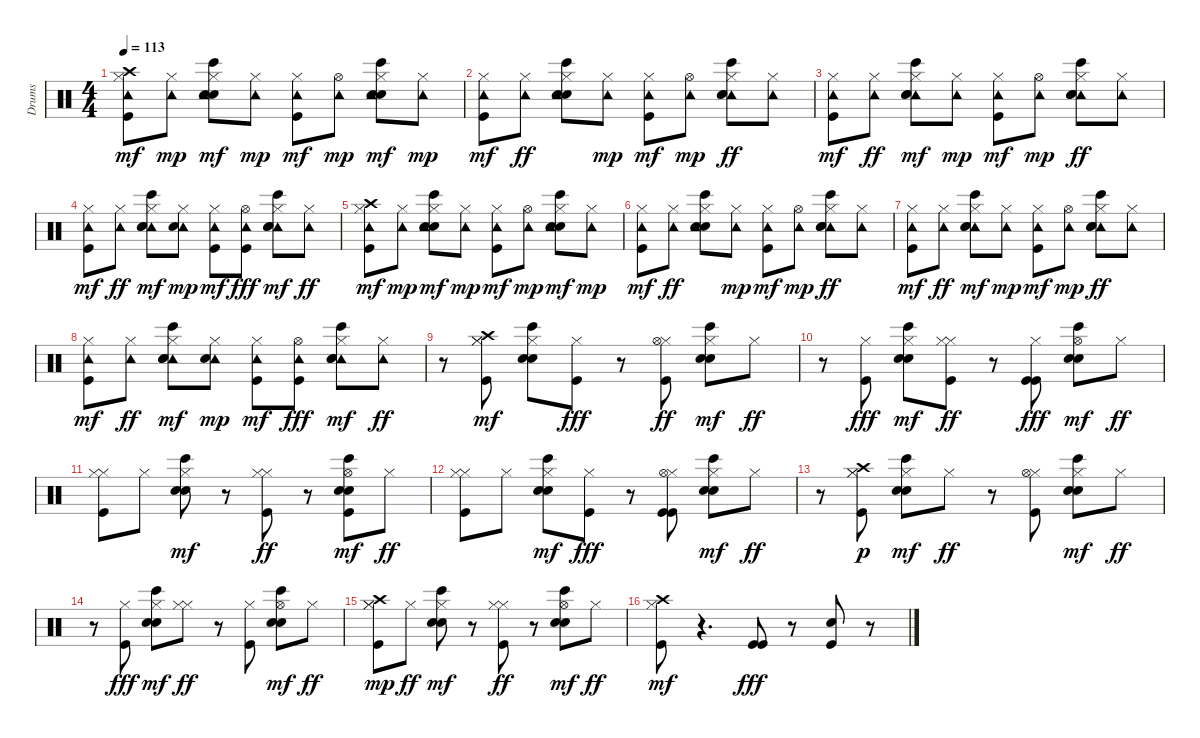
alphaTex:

\track ("Drums" "Drums") {instrument percussion}
\staff {score}
\articulation defaults
\ts (4 4)
\tempo 113
\clef neutral
\ks c
("Kick (hit)" "Hi-Hat (closed)" "Crash high (hit)" "Tambourine (hit)").8{dy mf} ("Tambourine (hit)" "Hi-Hat (closed)").8{dy mp} ("Hi-Hat (closed)" "Bongo High (hit)" "Snare (hit) 2" "Hand Clap (hit)" "Tambourine (hit)").8{dy mf} ("Hi-Hat (closed)" "Tambourine (hit)").8{dy mp} ("Kick (hit)" "Hi-Hat (closed)" "Tambourine (hit)").8{dy mf} ("Tambourine (hit)" "Hi-Hat (open)").8{dy mp} ("Hi-Hat (closed)" "Bongo High (hit)" "Snare (hit) 2" "Hand Clap (hit)" "Tambourine (hit)").8{dy mf} ("Hi-Hat (closed)" "Tambourine (hit)").8{dy mp} |
("Kick (hit)" "Hi-Hat (closed)" "Tambourine (hit)").8{dy mf} ("Tambourine (hit)" "Hi-Hat (closed)").8{dy ff} ("Bongo High (hit)" "Snare (hit) 2" "Hand Clap (hit)" "Tambourine (hit)" "Hi-Hat (closed)").8 ("Hi-Hat (closed)" "Tambourine (hit)").8{dy mp} ("Kick (hit)" "Hi-Hat (closed)" "Tambourine (hit)").8{dy mf} ("Tambourine (hit)" "Hi-Hat (open)").8{dy mp} ("Tambourine (hit)" "Bongo High (hit)" "Snare (hit) 2" "Hand Clap (hit)" "Hi-Hat (closed)").8{dy ff} ("Tambourine (hit)" "Hi-Hat (closed)").8 |
("Kick (hit)" "Hi-Hat (closed)" "Tambourine (hit)").8{dy mf} ("Tambourine (hit)" "Hi-Hat (closed)").8{dy ff} ("Tambourine (hit)" "Hi-Hat (closed)" "Bongo High (hit)" "Snare (hit) 2" "Hand Clap (hit)").8{dy mf} ("Hi-Hat (closed)" "Tambourine (hit)").8{dy mp} ("Kick (hit)" "Hi-Hat (closed)" "Tambourine (hit)").8{dy mf} ("Tambourine (hit)" "Hi-Hat (open)").8{dy mp} ("Tambourine (hit)" "Bongo High (hit)" "Snare (hit) 2" "Hand Clap (hit)" "Hi-Hat (closed)").8{dy ff} ("Tambourine (hit)" "Hi-Hat (closed)").8 |
("Kick (hit)" "Hi-Hat (closed)" "Tambourine (hit)").8{dy mf} ("Tambourine (hit)" "Hi-Hat (closed)").8{dy ff} ("Hi-Hat (closed)" "Tambourine (hit)" "Bongo High (hit)" "Snare (hit) 2" "Hand Clap (hit)").8{dy mf} ("Hi-Hat (closed)" "Tambourine (hit)" "Snare (hit) 2").8{dy mp} ("Kick (hit)" "Hi-Hat (closed)" "Tambourine (hit)").8{dy mf} ("Hi-Hat (open)" "Tambourine (hit)" "Kick (hit)").8{dy fff} ("Hi-Hat (closed)" "Tambourine (hit)" "Bongo High (hit)" "Snare (hit) 2" "Hand Clap (hit)").8{dy mf} ("Tambourine (hit)" "Hi-Hat (closed)").8{dy ff} |
("Kick (hit)" "Hi-Hat (closed)" "Crash high (hit)" "Tambourine (hit)").8{dy mf} ("Tambourine (hit)" "Hi-Hat (closed)").8{dy mp} ("Hi-Hat (closed)" "Bongo High (hit)" "Snare (hit) 2" "Hand Clap (hit)" "Tambourine (hit)").8{dy mf} ("Hi-Hat (closed)" "Tambourine (hit)").8{dy mp} ("Kick (hit)" "Hi-Hat (closed)" "Tambourine (hit)").8{dy mf} ("Tambourine (hit)" "Hi-Hat (open)").8{dy mp} ("Hi-Hat (closed)" "Bongo High (hit)" "Snare (hit) 2" "Hand Clap (hit)" "Tambourine (hit)").8{dy mf} ("Hi-Hat (closed)" "Tambourine (hit)").8{dy mp} |
("Kick (hit)" "Hi-Hat (closed)" "Tambourine (hit)").8{dy mf} ("Tambourine (hit)" "Hi-Hat (closed)").8{dy ff} ("Bongo High (hit)" "Snare (hit) 2" "Hand Clap (hit)" "Tambourine (hit)" "Hi-Hat (closed)").8 ("Hi-Hat (closed)" "Tambourine (hit)").8{dy mp} ("Kick (hit)" "Hi-Hat (closed)" "Tambourine (hit)").8{dy mf} ("Tambourine (hit)" "Hi-Hat (open)").8{dy mp} ("Tambourine (hit)" "Bongo High (hit)" "Snare (hit) 2" "Hand Clap (hit)" "Hi-Hat (closed)").8{dy ff} ("Tambourine (hit)" "Hi-Hat (closed)").8 |
("Kick (hit)" "Hi-Hat (closed)" "Tambourine (hit)").8{dy mf} ("Tambourine (hit)" "Hi-Hat (closed)").8{dy ff} ("Tambourine (hit)" "Hi-Hat (closed)" "Bongo High (hit)" "Snare (hit) 2" "Hand Clap (hit)").8{dy mf} ("Hi-Hat (closed)" "Tambourine (hit)").8{dy mp} ("Kick (hit)" "Hi-Hat (closed)" "Tambourine (hit)").8{dy mf} ("Tambourine (hit)" "Hi-Hat (open)").8{dy mp} ("Tambourine (hit)" "Bongo High (hit)" "Snare (hit) 2" "Hand Clap (hit)" "Hi-Hat (closed)").8{dy ff} ("Tambourine (hit)" "Hi-Hat (closed)").8 |
("Kick (hit)" "Hi-Hat (closed)" "Tambourine (hit)").8{dy mf} ("Tambourine (hit)" "Hi-Hat (closed)").8{dy ff} ("Hi-Hat (closed)" "Tambourine (hit)" "Bongo High (hit)" "Snare (hit) 2" "Hand Clap (hit)").8{dy mf} ("Hi-Hat (closed)" "Tambourine (hit)" "Snare (hit) 2").8{dy mp} ("Kick (hit)" "Hi-Hat (closed)" "Tambourine (hit)").8{dy mf} ("Hi-Hat (open)" "Tambourine (hit)" "Kick (hit)").8{dy fff} ("Hi-Hat (closed)" "Tambourine (hit)" "Bongo High (hit)" "Snare (hit) 2" "Hand Clap (hit)").8{dy mf} ("Tambourine (hit)" "Hi-Hat (closed)").8{dy ff} |
r.8 ("Kick (hit)" "Hi-Hat (closed)" "Crash high (hit)" "Hi-Hat (closed)").8{dy mf} ("Hi-Hat (closed)" "Bongo High (hit)" "Snare (hit) 2" "Hand Clap (hit)").8 ("Hi-Hat (closed)" "Kick (hit)").8{dy fff} r.8 ("Kick (hit)" "Hi-Hat (closed)" "Hi-Hat (open)").8{dy ff} ("Hi-Hat (closed)" "Bongo High (hit)" "Snare (hit) 2" "Hand Clap (hit)").8{dy mf} "Hi-Hat (closed)".8{dy ff} |
r.8 ("Kick (hit)" "Hi-Hat (closed)").8{dy fff} ("Hi-Hat (closed)" "Bongo High (hit)" "Snare (hit) 2" "Hand Clap (hit)").8{dy mf} ("Hi-Hat (closed)" "Kick (hit)" "Hi-Hat (closed)").8{dy ff} r.8 ("Kick (hit)" "Hi-Hat (closed)" "Kick (hit)").8{dy fff} ("Hi-Hat (open)" "Bongo High (hit)" "Snare (hit) 2" "Hand Clap (hit)").8{dy mf} "Hi-Hat (closed)".8{dy ff} |
("Hi-Hat (closed)" "Kick (hit)" "Hi-Hat (closed)").8 "Hi-Hat (closed)".8 ("Hi-Hat (closed)" "Bongo High (hit)" "Snare (hit) 2" "Hand Clap (hit)").8{dy mf} r.8 ("Kick (hit)" "Hi-Hat (closed)" "Hi-Hat (closed)").8{dy ff} r.8 ("Kick (hit)" "Hi-Hat (open)" "Bongo High (hit)" "Snare (hit) 2" "Hand Clap (hit)").8{dy mf} "Hi-Hat (closed)".8{dy ff} |
("Hi-Hat (closed)" "Kick (hit)" "Hi-Hat (closed)").8 "Hi-Hat (closed)".8 ("Hi-Hat (closed)" "Bongo High (hit)" "Snare (hit) 2" "Hand Clap (hit)").8{dy mf} ("Hi-Hat (closed)" "Kick (hit)").8{dy fff} r.8 ("Kick (hit)" "Hi-Hat (closed)" "Hi-Hat (open)" "Kick (hit)").8 ("Hi-Hat (closed)" "Bongo High (hit)" "Snare (hit) 2" "Hand Clap (hit)").8{dy mf} "Hi-Hat (closed)".8{dy ff} |
r.8 ("Kick (hit)" "Hi-Hat (closed)" "Crash high (hit)" "Hi-Hat (closed)").8{dy p} ("Hi-Hat (closed)" "Bongo High (hit)" "Snare (hit) 2" "Hand Clap (hit)").8{dy mf} "Hi-Hat (closed)".8{dy ff} r.8 ("Kick (hit)" "Hi-Hat (closed)" "Hi-Hat (open)").8 ("Hi-Hat (closed)" "Bongo High (hit)" "Snare (hit) 2" "Hand Clap (hit)").8{dy mf} "Hi-Hat (closed)".8{dy ff} |
r.8 ("Kick (hit)" "Hi-Hat (closed)").8{dy fff} ("Hi-Hat (closed)" "Bongo High (hit)" "Snare (hit) 2" "Hand Clap (hit)").8{dy mf} ("Hi-Hat (closed)" "Hi-Hat (closed)").8{dy ff} r.8 ("Kick (hit)" "Hi-Hat (closed)").8 ("Hi-Hat (open)" "Bongo High (hit)" "Snare (hit) 2" "Hand Clap (hit)").8{dy mf} "Hi-Hat (closed)".8{dy ff} |
("Hi-Hat (closed)" "Kick (hit)" "Hi-Hat (closed)" "Crash high (hit)").8{dy mp} "Hi-Hat (closed)".8{dy ff} ("Hi-Hat (closed)" "Bongo High (hit)" "Snare (hit) 2" "Hand Clap (hit)").8{dy mf} r.8 ("Hi-Hat (closed)" "Kick (hit)" "Hi-Hat (closed)").8{dy ff} r.8 ("Hi-Hat (open)" "Bongo High (hit)" "Snare (hit) 2" "Hand Clap (hit)").8{dy mf} "Hi-Hat (closed)".8{dy ff} |
("Hi-Hat (closed)" "Kick (hit)" "Crash high (hit)").8{dy mf} r.4{d} ("Kick (hit)" "Kick (hit)").8{dy fff} r.8 ("Kick (hit)" "Snare (hit) 2").8 r.8
